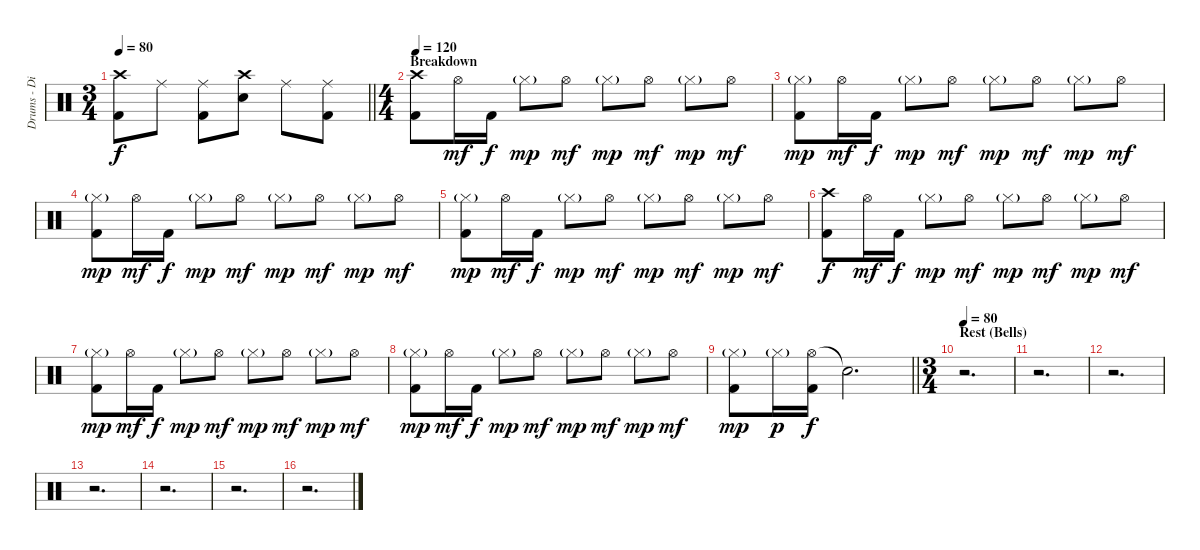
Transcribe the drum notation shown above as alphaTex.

\track ("Drums - Dino Campanella" "Drums - Di") {instrument percussion}
\staff {score}
\articulation defaults
\ts (3 4)
\tempo 80
\clef neutral
\barLineRight lightlight
\ks c
("Crash high (hit)" "Kick (hit) 2").8{dy f} "Ride (middle)".8 ("Ride (middle)" "Kick (hit) 2").8 ("Crash high (hit)" "Electric Snare (hit)").8 "Ride (middle)".8 ("Ride (middle)" "Kick (hit) 2").8 |
\ts (4 4)
\section ("" "Breakdown")
\tempo 120
("Crash high (hit)" "Kick (hit) 2").8 "Hi-Hat (open)".16{dy mf} "Kick (hit) 2".16{dy f} "Hi-Hat (closed)"{g}.8{dy mp} "Hi-Hat (open)".8{dy mf} "Hi-Hat (closed)"{g}.8{dy mp} "Hi-Hat (open)".8{dy mf} "Hi-Hat (closed)"{g}.8{dy mp} "Hi-Hat (open)".8{dy mf} |
("Hi-Hat (closed)"{g} "Kick (hit) 2").8{dy mp} "Hi-Hat (open)".16{dy mf} "Kick (hit) 2".16{dy f} "Hi-Hat (closed)"{g}.8{dy mp} "Hi-Hat (open)".8{dy mf} "Hi-Hat (closed)"{g}.8{dy mp} "Hi-Hat (open)".8{dy mf} "Hi-Hat (closed)"{g}.8{dy mp} "Hi-Hat (open)".8{dy mf} |
("Hi-Hat (closed)"{g} "Kick (hit) 2").8{dy mp} "Hi-Hat (open)".16{dy mf} "Kick (hit) 2".16{dy f} "Hi-Hat (closed)"{g}.8{dy mp} "Hi-Hat (open)".8{dy mf} "Hi-Hat (closed)"{g}.8{dy mp} "Hi-Hat (open)".8{dy mf} "Hi-Hat (closed)"{g}.8{dy mp} "Hi-Hat (open)".8{dy mf} |
("Hi-Hat (closed)"{g} "Kick (hit) 2").8{dy mp} "Hi-Hat (open)".16{dy mf} "Kick (hit) 2".16{dy f} "Hi-Hat (closed)"{g}.8{dy mp} "Hi-Hat (open)".8{dy mf} "Hi-Hat (closed)"{g}.8{dy mp} "Hi-Hat (open)".8{dy mf} "Hi-Hat (closed)"{g}.8{dy mp} "Hi-Hat (open)".8{dy mf} |
("Crash high (hit)" "Kick (hit) 2").8{dy f} "Hi-Hat (open)".16{dy mf} "Kick (hit) 2".16{dy f} "Hi-Hat (closed)"{g}.8{dy mp} "Hi-Hat (open)".8{dy mf} "Hi-Hat (closed)"{g}.8{dy mp} "Hi-Hat (open)".8{dy mf} "Hi-Hat (closed)"{g}.8{dy mp} "Hi-Hat (open)".8{dy mf} |
("Hi-Hat (closed)"{g} "Kick (hit) 2").8{dy mp} "Hi-Hat (open)".16{dy mf} "Kick (hit) 2".16{dy f} "Hi-Hat (closed)"{g}.8{dy mp} "Hi-Hat (open)".8{dy mf} "Hi-Hat (closed)"{g}.8{dy mp} "Hi-Hat (open)".8{dy mf} "Hi-Hat (closed)"{g}.8{dy mp} "Hi-Hat (open)".8{dy mf} |
("Hi-Hat (closed)"{g} "Kick (hit) 2").8{dy mp} "Hi-Hat (open)".16{dy mf} "Kick (hit) 2".16{dy f} "Hi-Hat (closed)"{g}.8{dy mp} "Hi-Hat (open)".8{dy mf} "Hi-Hat (closed)"{g}.8{dy mp} "Hi-Hat (open)".8{dy mf} "Hi-Hat (closed)"{g}.8{dy mp} "Hi-Hat (open)".8{dy mf} |
\barLineRight lightlight
("Hi-Hat (closed)"{g} "Kick (hit) 2").8{dy mp} "Hi-Hat (closed)"{g}.16{dy p} ("Hi-Hat (open)" "Kick (hit) 2").16{dy f} "Snare (hit)"{t}.2{d} |
\ts (3 4)
\section ("" "Rest (Bells)")
\tempo 80
r.2{d} |
r.2{d} |
r.2{d} |
r.2{d} |
r.2{d} |
r.2{d} |
r.2{d}
